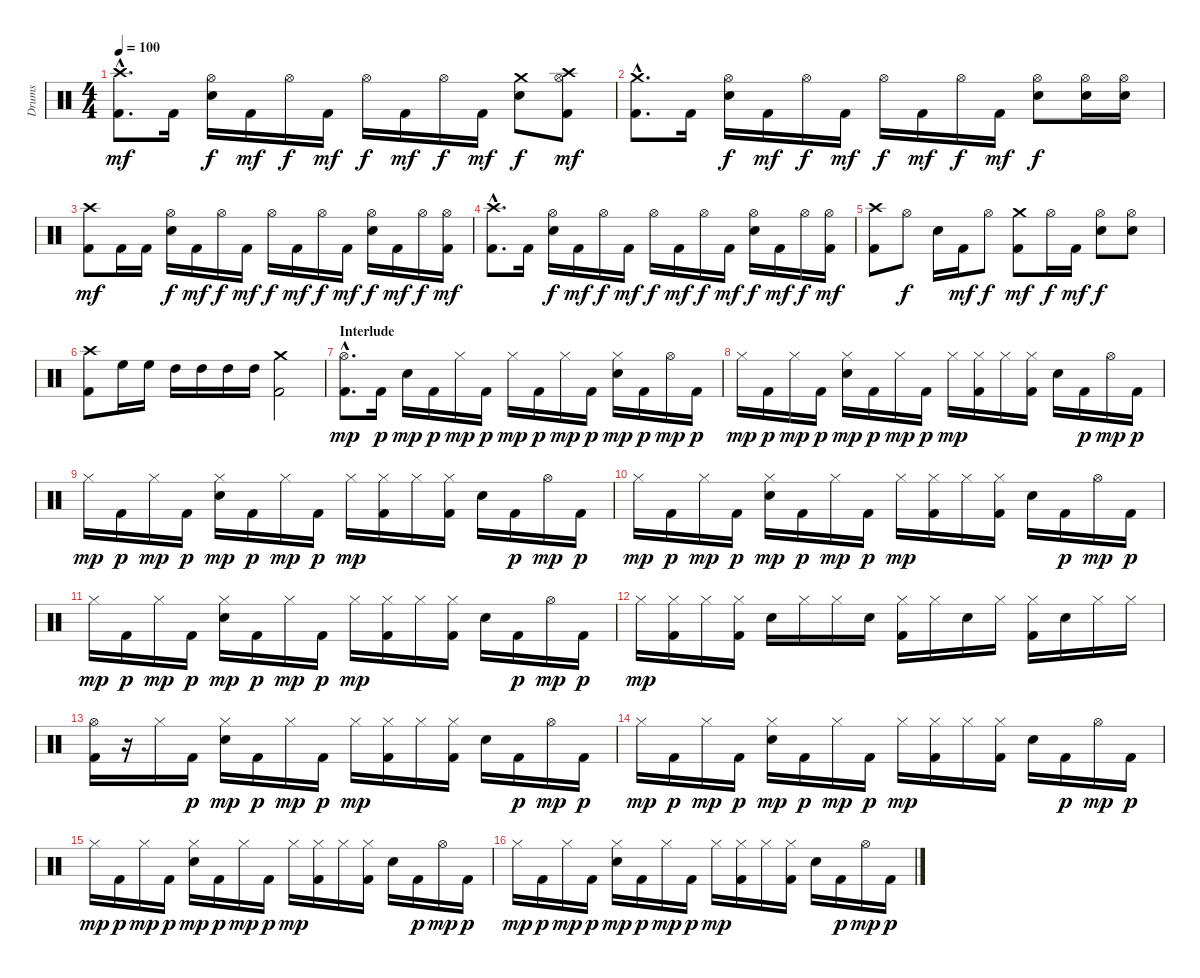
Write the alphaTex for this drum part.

\track ("Drums" "Drums") {instrument percussion}
\staff {score}
\articulation defaults
\ts (4 4)
\tempo 100
\clef neutral
\ks c
("Kick (hit) 2"{hac} "Crash high (hit)"{hac}).8{d dy mf} "Kick (hit) 2".16 ("Snare (hit) 2" "Hi-Hat (open)").16{dy f} "Kick (hit) 2".16{dy mf} "Hi-Hat (open)".16{dy f} "Kick (hit) 2".16{dy mf} "Hi-Hat (open)".16{dy f} "Kick (hit) 2".16{dy mf} "Hi-Hat (open)".16{dy f} "Kick (hit) 2".16{dy mf} ("Snare (hit) 2" "Crash medium (hit)").8{dy f} ("Kick (hit) 2" "Hi-Hat (open)" "Crash high (hit)").8{dy mf} |
("Kick (hit) 2"{hac} "Crash medium (hit)"{hac}).8{d} "Kick (hit) 2".16 ("Snare (hit) 2" "Hi-Hat (open)").16{dy f} "Kick (hit) 2".16{dy mf} "Hi-Hat (open)".16{dy f} "Kick (hit) 2".16{dy mf} "Hi-Hat (open)".16{dy f} "Kick (hit) 2".16{dy mf} "Hi-Hat (open)".16{dy f} "Kick (hit) 2".16{dy mf} ("Snare (hit) 2" "Hi-Hat (open)").8{dy f} ("Snare (hit) 2" "Hi-Hat (open)").16 ("Snare (hit) 2" "Hi-Hat (open)").16 |
("Kick (hit) 2" "Crash high (hit)").8{dy mf} "Kick (hit) 2".16 "Kick (hit) 2".16 ("Snare (hit) 2" "Hi-Hat (open)").16{dy f} "Kick (hit) 2".16{dy mf} "Hi-Hat (open)".16{dy f} "Kick (hit) 2".16{dy mf} "Hi-Hat (open)".16{dy f} "Kick (hit) 2".16{dy mf} "Hi-Hat (open)".16{dy f} "Kick (hit) 2".16{dy mf} ("Snare (hit) 2" "Hi-Hat (open)").16{dy f} "Kick (hit) 2".16{dy mf} "Hi-Hat (open)".16{dy f} ("Kick (hit) 2" "Hi-Hat (open)").16{dy mf} |
("Kick (hit) 2"{hac} "Crash high (hit)"{hac}).8{d} "Kick (hit) 2".16 ("Snare (hit) 2" "Hi-Hat (open)").16{dy f} "Kick (hit) 2".16{dy mf} "Hi-Hat (open)".16{dy f} "Kick (hit) 2".16{dy mf} "Hi-Hat (open)".16{dy f} "Kick (hit) 2".16{dy mf} "Hi-Hat (open)".16{dy f} "Kick (hit) 2".16{dy mf} ("Snare (hit) 2" "Hi-Hat (open)").16{dy f} "Kick (hit) 2".16{dy mf} "Hi-Hat (open)".16{dy f} ("Kick (hit) 2" "Hi-Hat (open)").16{dy mf} |
("Kick (hit) 2" "Crash high (hit)").8 "Hi-Hat (open)".8{dy f} "Snare (hit) 2".16 "Kick (hit) 2".16{dy mf} "Hi-Hat (open)".8{dy f} ("Kick (hit) 2" "Crash medium (hit)").8{dy mf} "Hi-Hat (open)".16{dy f} "Kick (hit) 2".16{dy mf} ("Snare (hit) 2" "Hi-Hat (open)").8{dy f} ("Snare (hit) 2" "Hi-Hat (open)").8 |
("Kick (hit) 2" "Crash high (hit)").8 "High Floor Tom (hit)".16 "High Floor Tom (hit)".16 "High Tom (hit)".16 "High Tom (hit)".16 "High Tom (hit)".16 "High Tom (hit)".16 ("Kick (hit) 2" "Crash medium (hit)").2 |
\section ("" "Interlude")
("Kick (hit) 2"{hac} "Hi-Hat (open)"{hac}).8{d dy mp} "Kick (hit) 2".16{dy p} "Snare (hit) 2".16{dy mp} "Kick (hit) 2".16{dy p} "Hi-Hat (closed)".16{dy mp} "Kick (hit) 2".16{dy p} "Hi-Hat (closed)".16{dy mp} "Kick (hit) 2".16{dy p} "Hi-Hat (closed)".16{dy mp} "Kick (hit) 2".16{dy p} ("Snare (hit) 2" "Hi-Hat (closed)").16{dy mp} "Kick (hit) 2".16{dy p} "Hi-Hat (open)".16{dy mp} "Kick (hit) 2".16{dy p} |
"Hi-Hat (closed)".16{dy mp} "Kick (hit) 2".16{dy p} "Hi-Hat (closed)".16{dy mp} "Kick (hit) 2".16{dy p} ("Snare (hit) 2" "Hi-Hat (closed)").16{dy mp} "Kick (hit) 2".16{dy p} "Hi-Hat (closed)".16{dy mp} "Kick (hit) 2".16{dy p} "Hi-Hat (closed)".16{dy mp} ("Kick (hit) 2" "Hi-Hat (closed)").16 "Hi-Hat (closed)".16 ("Kick (hit) 2" "Hi-Hat (closed)").16 "Snare (hit) 2".16 "Kick (hit) 2".16{dy p} "Hi-Hat (open)".16{dy mp} "Kick (hit) 2".16{dy p} |
"Hi-Hat (closed)".16{dy mp} "Kick (hit) 2".16{dy p} "Hi-Hat (closed)".16{dy mp} "Kick (hit) 2".16{dy p} ("Snare (hit) 2" "Hi-Hat (closed)").16{dy mp} "Kick (hit) 2".16{dy p} "Hi-Hat (closed)".16{dy mp} "Kick (hit) 2".16{dy p} "Hi-Hat (closed)".16{dy mp} ("Kick (hit) 2" "Hi-Hat (closed)").16 "Hi-Hat (closed)".16 ("Kick (hit) 2" "Hi-Hat (closed)").16 "Snare (hit) 2".16 "Kick (hit) 2".16{dy p} "Hi-Hat (open)".16{dy mp} "Kick (hit) 2".16{dy p} |
"Hi-Hat (closed)".16{dy mp} "Kick (hit) 2".16{dy p} "Hi-Hat (closed)".16{dy mp} "Kick (hit) 2".16{dy p} ("Snare (hit) 2" "Hi-Hat (closed)").16{dy mp} "Kick (hit) 2".16{dy p} "Hi-Hat (closed)".16{dy mp} "Kick (hit) 2".16{dy p} "Hi-Hat (closed)".16{dy mp} ("Kick (hit) 2" "Hi-Hat (closed)").16 "Hi-Hat (closed)".16 ("Kick (hit) 2" "Hi-Hat (closed)").16 "Snare (hit) 2".16 "Kick (hit) 2".16{dy p} "Hi-Hat (open)".16{dy mp} "Kick (hit) 2".16{dy p} |
"Hi-Hat (closed)".16{dy mp} "Kick (hit) 2".16{dy p} "Hi-Hat (closed)".16{dy mp} "Kick (hit) 2".16{dy p} ("Snare (hit) 2" "Hi-Hat (closed)").16{dy mp} "Kick (hit) 2".16{dy p} "Hi-Hat (closed)".16{dy mp} "Kick (hit) 2".16{dy p} "Hi-Hat (closed)".16{dy mp} ("Kick (hit) 2" "Hi-Hat (closed)").16 "Hi-Hat (closed)".16 ("Kick (hit) 2" "Hi-Hat (closed)").16 "Snare (hit) 2".16 "Kick (hit) 2".16{dy p} "Hi-Hat (open)".16{dy mp} "Kick (hit) 2".16{dy p} |
"Hi-Hat (closed)".16{dy mp} ("Kick (hit) 2" "Hi-Hat (closed)").16 "Hi-Hat (closed)".16 ("Kick (hit) 2" "Hi-Hat (closed)").16 "Snare (hit) 2".16 "Hi-Hat (closed)".16 "Hi-Hat (closed)".16 "Snare (hit) 2".16 ("Kick (hit) 2" "Hi-Hat (closed)").16 "Hi-Hat (closed)".16 "Snare (hit) 2".16 "Hi-Hat (closed)".16 ("Kick (hit) 2" "Hi-Hat (closed)").16 "Snare (hit) 2".16 "Hi-Hat (closed)".16 "Hi-Hat (closed)".16 |
("Kick (hit) 2" "Hi-Hat (open)").16 r.16 "Hi-Hat (closed)".16 "Kick (hit) 2".16{dy p} ("Snare (hit) 2" "Hi-Hat (closed)").16{dy mp} "Kick (hit) 2".16{dy p} "Hi-Hat (closed)".16{dy mp} "Kick (hit) 2".16{dy p} "Hi-Hat (closed)".16{dy mp} ("Kick (hit) 2" "Hi-Hat (closed)").16 "Hi-Hat (closed)".16 ("Kick (hit) 2" "Hi-Hat (closed)").16 "Snare (hit) 2".16 "Kick (hit) 2".16{dy p} "Hi-Hat (open)".16{dy mp} "Kick (hit) 2".16{dy p} |
"Hi-Hat (closed)".16{dy mp} "Kick (hit) 2".16{dy p} "Hi-Hat (closed)".16{dy mp} "Kick (hit) 2".16{dy p} ("Snare (hit) 2" "Hi-Hat (closed)").16{dy mp} "Kick (hit) 2".16{dy p} "Hi-Hat (closed)".16{dy mp} "Kick (hit) 2".16{dy p} "Hi-Hat (closed)".16{dy mp} ("Kick (hit) 2" "Hi-Hat (closed)").16 "Hi-Hat (closed)".16 ("Kick (hit) 2" "Hi-Hat (closed)").16 "Snare (hit) 2".16 "Kick (hit) 2".16{dy p} "Hi-Hat (open)".16{dy mp} "Kick (hit) 2".16{dy p} |
"Hi-Hat (closed)".16{dy mp} "Kick (hit) 2".16{dy p} "Hi-Hat (closed)".16{dy mp} "Kick (hit) 2".16{dy p} ("Snare (hit) 2" "Hi-Hat (closed)").16{dy mp} "Kick (hit) 2".16{dy p} "Hi-Hat (closed)".16{dy mp} "Kick (hit) 2".16{dy p} "Hi-Hat (closed)".16{dy mp} ("Kick (hit) 2" "Hi-Hat (closed)").16 "Hi-Hat (closed)".16 ("Kick (hit) 2" "Hi-Hat (closed)").16 "Snare (hit) 2".16 "Kick (hit) 2".16{dy p} "Hi-Hat (open)".16{dy mp} "Kick (hit) 2".16{dy p} |
"Hi-Hat (closed)".16{dy mp} "Kick (hit) 2".16{dy p} "Hi-Hat (closed)".16{dy mp} "Kick (hit) 2".16{dy p} ("Snare (hit) 2" "Hi-Hat (closed)").16{dy mp} "Kick (hit) 2".16{dy p} "Hi-Hat (closed)".16{dy mp} "Kick (hit) 2".16{dy p} "Hi-Hat (closed)".16{dy mp} ("Kick (hit) 2" "Hi-Hat (closed)").16 "Hi-Hat (closed)".16 ("Kick (hit) 2" "Hi-Hat (closed)").16 "Snare (hit) 2".16 "Kick (hit) 2".16{dy p} "Hi-Hat (open)".16{dy mp} "Kick (hit) 2".16{dy p}
